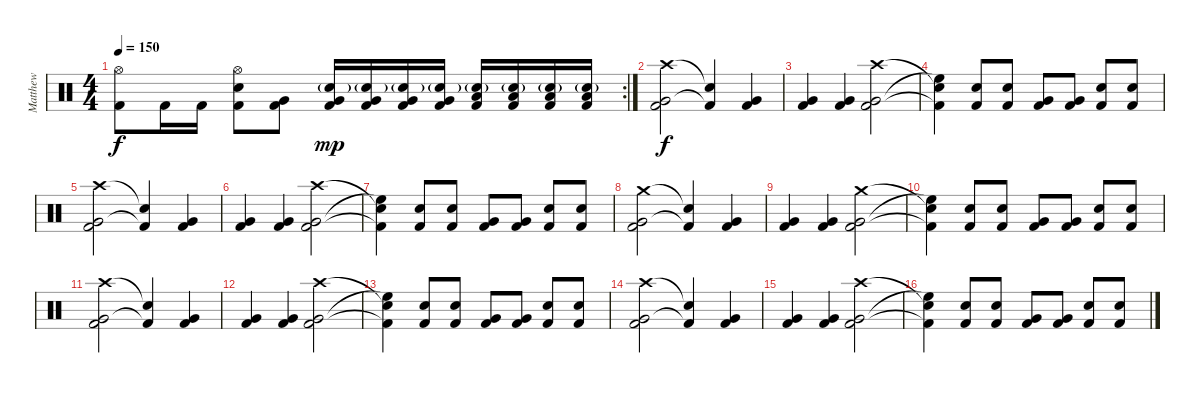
\track ("Matthew" "Matthew") {instrument percussion}
\staff {score}
\articulation defaults
\rc 2
\ts (4 4)
\tempo 150
\clef neutral
\ks c
("Hi-Hat (open)" "Kick (hit) 2").8{dy f} "Kick (hit) 2".16 "Kick (hit) 2".16 ("Hi-Hat (open)" "Snare (hit) 2" "Kick (hit) 2").8 ("Very Low Tom (hit)" "Kick (hit) 2").8 ("Snare (hit) 2"{g} "Very Low Tom (hit)" "Kick (hit) 2").16{dy mp} ("Snare (hit) 2"{g} "Very Low Tom (hit)" "Kick (hit) 2").16 ("Snare (hit) 2"{g} "Very Low Tom (hit)" "Kick (hit) 2").16 ("Snare (hit) 2"{g} "Very Low Tom (hit)" "Kick (hit) 2").16 ("Snare (hit) 2"{g} "Low Floor Tom (hit)" "Kick (hit) 2").16 ("Snare (hit) 2"{g} "Low Floor Tom (hit)" "Kick (hit) 2").16 ("Snare (hit) 2"{g} "Low Floor Tom (hit)" "Kick (hit) 2").16 ("Snare (hit) 2"{g} "Low Floor Tom (hit)" "Kick (hit) 2").16 |
("Crash high (hit)" "Very Low Tom (hit)" "Kick (hit) 2").2{dy f} ("Snare (hit)"{t} "Kick (hit) 2"{t}).4 ("Very Low Tom (hit)" "Kick (hit) 2").4 |
("Very Low Tom (hit)" "Kick (hit) 2").4 ("Very Low Tom (hit)" "Kick (hit) 2").4 ("Crash high (hit)" "Very Low Tom (hit)" "Kick (hit) 2").2 |
("Snare (hit)"{t} "High Floor Tom (hit)"{t} "Kick (hit) 2"{t}).4 ("Snare (hit) 2" "Kick (hit) 2").8 ("Snare (hit) 2" "Kick (hit) 2").8 ("Very Low Tom (hit)" "Kick (hit) 2").8 ("Very Low Tom (hit)" "Kick (hit) 2").8 ("Snare (hit) 2" "Kick (hit) 2").8 ("Snare (hit) 2" "Kick (hit) 2").8 |
("Crash high (hit)" "Very Low Tom (hit)" "Kick (hit) 2").2 ("Snare (hit)"{t} "Kick (hit) 2"{t}).4 ("Very Low Tom (hit)" "Kick (hit) 2").4 |
("Very Low Tom (hit)" "Kick (hit) 2").4 ("Very Low Tom (hit)" "Kick (hit) 2").4 ("Crash high (hit)" "Very Low Tom (hit)" "Kick (hit) 2").2 |
("Snare (hit)"{t} "High Floor Tom (hit)"{t} "Kick (hit) 2"{t}).4 ("Snare (hit) 2" "Kick (hit) 2").8 ("Snare (hit) 2" "Kick (hit) 2").8 ("Very Low Tom (hit)" "Kick (hit) 2").8 ("Very Low Tom (hit)" "Kick (hit) 2").8 ("Snare (hit) 2" "Kick (hit) 2").8 ("Snare (hit) 2" "Kick (hit) 2").8 |
("Crash medium (hit)" "Very Low Tom (hit)" "Kick (hit) 2").2 ("Snare (hit)"{t} "Kick (hit) 2"{t}).4 ("Very Low Tom (hit)" "Kick (hit) 2").4 |
("Very Low Tom (hit)" "Kick (hit) 2").4 ("Very Low Tom (hit)" "Kick (hit) 2").4 ("Crash medium (hit)" "Very Low Tom (hit)" "Kick (hit) 2").2 |
("Snare (hit)"{t} "High Floor Tom (hit)"{t} "Kick (hit) 2"{t}).4 ("Snare (hit) 2" "Kick (hit) 2").8 ("Snare (hit) 2" "Kick (hit) 2").8 ("Very Low Tom (hit)" "Kick (hit) 2").8 ("Very Low Tom (hit)" "Kick (hit) 2").8 ("Snare (hit) 2" "Kick (hit) 2").8 ("Snare (hit) 2" "Kick (hit) 2").8 |
("Crash high (hit)" "Very Low Tom (hit)" "Kick (hit) 2").2 ("Snare (hit)"{t} "Kick (hit) 2"{t}).4 ("Very Low Tom (hit)" "Kick (hit) 2").4 |
("Very Low Tom (hit)" "Kick (hit) 2").4 ("Very Low Tom (hit)" "Kick (hit) 2").4 ("Crash high (hit)" "Very Low Tom (hit)" "Kick (hit) 2").2 |
("Snare (hit)"{t} "High Floor Tom (hit)"{t} "Kick (hit) 2"{t}).4 ("Snare (hit) 2" "Kick (hit) 2").8 ("Snare (hit) 2" "Kick (hit) 2").8 ("Very Low Tom (hit)" "Kick (hit) 2").8 ("Very Low Tom (hit)" "Kick (hit) 2").8 ("Snare (hit) 2" "Kick (hit) 2").8 ("Snare (hit) 2" "Kick (hit) 2").8 |
("Crash high (hit)" "Very Low Tom (hit)" "Kick (hit) 2").2 ("Snare (hit)"{t} "Kick (hit) 2"{t}).4 ("Very Low Tom (hit)" "Kick (hit) 2").4 |
("Very Low Tom (hit)" "Kick (hit) 2").4 ("Very Low Tom (hit)" "Kick (hit) 2").4 ("Crash high (hit)" "Very Low Tom (hit)" "Kick (hit) 2").2 |
("Snare (hit)"{t} "High Floor Tom (hit)"{t} "Kick (hit) 2"{t}).4 ("Snare (hit) 2" "Kick (hit) 2").8 ("Snare (hit) 2" "Kick (hit) 2").8 ("Very Low Tom (hit)" "Kick (hit) 2").8 ("Very Low Tom (hit)" "Kick (hit) 2").8 ("Snare (hit) 2" "Kick (hit) 2").8 ("Snare (hit) 2" "Kick (hit) 2").8
